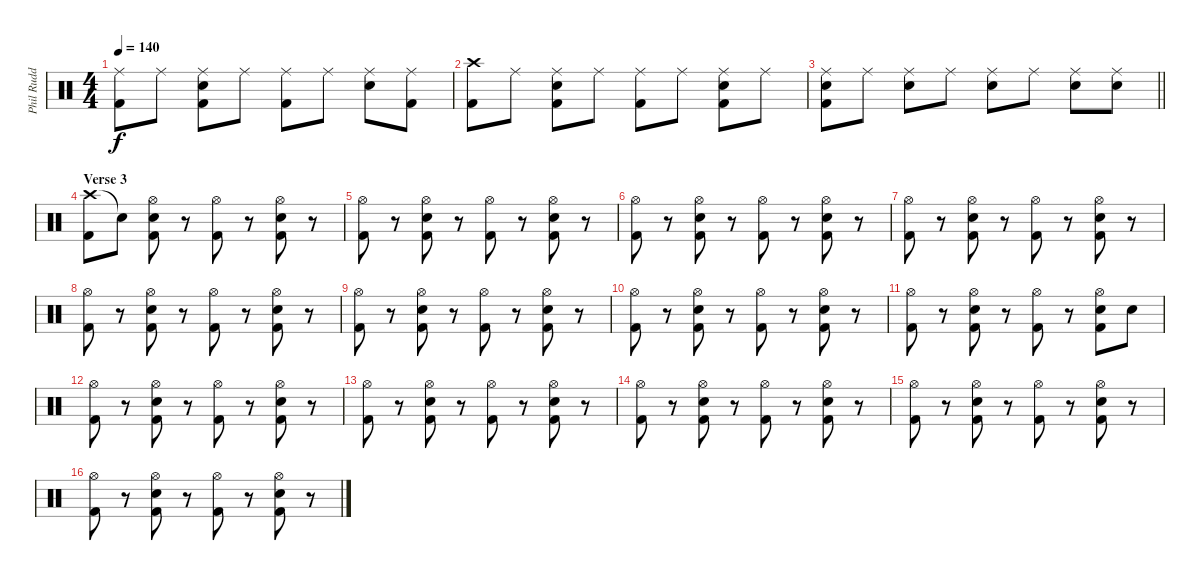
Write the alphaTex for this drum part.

\track ("Phil Rudd" "Phil Rudd") {instrument percussion}
\staff {score}
\articulation defaults
\ts (4 4)
\tempo 140
\clef neutral
\ks c
("Ride (middle)" "Kick (hit) 2").8{dy f} "Ride (middle)".8 ("Ride (middle)" "Electric Snare (hit)" "Kick (hit) 2").8 "Ride (middle)".8 ("Ride (middle)" "Kick (hit) 2").8 "Ride (middle)".8 ("Ride (middle)" "Electric Snare (hit)").8 ("Ride (middle)" "Kick (hit) 2").8 |
("Crash high (hit)" "Kick (hit) 2").8 "Ride (middle)".8 ("Ride (middle)" "Electric Snare (hit)" "Kick (hit) 2").8 "Ride (middle)".8 ("Ride (middle)" "Kick (hit) 2").8 "Ride (middle)".8 ("Ride (middle)" "Electric Snare (hit)" "Kick (hit) 2").8 "Ride (middle)".8 |
\barLineRight lightlight
("Ride (middle)" "Electric Snare (hit)" "Kick (hit) 2").8 "Ride (middle)".8 ("Ride (middle)" "Electric Snare (hit)").8 "Ride (middle)".8 ("Ride (middle)" "Electric Snare (hit)").8 "Ride (middle)".8 ("Ride (middle)" "Electric Snare (hit)").8 ("Ride (middle)" "Electric Snare (hit)").8 |
\section ("" "Verse 3")
("Crash high (hit)" "Kick (hit) 2").8 "Snare (hit)"{t}.8 ("Hi-Hat (open)" "Electric Snare (hit)" "Kick (hit) 2").8 r.8 ("Hi-Hat (open)" "Kick (hit) 2").8 r.8 ("Hi-Hat (open)" "Electric Snare (hit)" "Kick (hit) 2").8 r.8 |
("Hi-Hat (open)" "Kick (hit) 2").8 r.8 ("Hi-Hat (open)" "Electric Snare (hit)" "Kick (hit) 2").8 r.8 ("Hi-Hat (open)" "Kick (hit) 2").8 r.8 ("Hi-Hat (open)" "Electric Snare (hit)" "Kick (hit) 2").8 r.8 |
("Hi-Hat (open)" "Kick (hit) 2").8 r.8 ("Hi-Hat (open)" "Electric Snare (hit)" "Kick (hit) 2").8 r.8 ("Hi-Hat (open)" "Kick (hit) 2").8 r.8 ("Hi-Hat (open)" "Electric Snare (hit)" "Kick (hit) 2").8 r.8 |
("Hi-Hat (open)" "Kick (hit) 2").8 r.8 ("Hi-Hat (open)" "Electric Snare (hit)" "Kick (hit) 2").8 r.8 ("Hi-Hat (open)" "Kick (hit) 2").8 r.8 ("Hi-Hat (open)" "Electric Snare (hit)" "Kick (hit) 2").8 r.8 |
("Hi-Hat (open)" "Kick (hit) 2").8 r.8 ("Hi-Hat (open)" "Electric Snare (hit)" "Kick (hit) 2").8 r.8 ("Hi-Hat (open)" "Kick (hit) 2").8 r.8 ("Hi-Hat (open)" "Electric Snare (hit)" "Kick (hit) 2").8 r.8 |
("Hi-Hat (open)" "Kick (hit) 2").8 r.8 ("Hi-Hat (open)" "Electric Snare (hit)" "Kick (hit) 2").8 r.8 ("Hi-Hat (open)" "Kick (hit) 2").8 r.8 ("Hi-Hat (open)" "Electric Snare (hit)" "Kick (hit) 2").8 r.8 |
("Hi-Hat (open)" "Kick (hit) 2").8 r.8 ("Hi-Hat (open)" "Electric Snare (hit)" "Kick (hit) 2").8 r.8 ("Hi-Hat (open)" "Kick (hit) 2").8 r.8 ("Hi-Hat (open)" "Electric Snare (hit)" "Kick (hit) 2").8 r.8 |
("Hi-Hat (open)" "Kick (hit) 2").8 r.8 ("Hi-Hat (open)" "Electric Snare (hit)" "Kick (hit) 2").8 r.8 ("Hi-Hat (open)" "Kick (hit) 2").8 r.8 ("Hi-Hat (open)" "Electric Snare (hit)" "Kick (hit) 2").8 "Electric Snare (hit)".8 |
("Hi-Hat (open)" "Kick (hit) 2").8 r.8 ("Hi-Hat (open)" "Electric Snare (hit)" "Kick (hit) 2").8 r.8 ("Hi-Hat (open)" "Kick (hit) 2").8 r.8 ("Hi-Hat (open)" "Electric Snare (hit)" "Kick (hit) 2").8 r.8 |
("Hi-Hat (open)" "Kick (hit) 2").8 r.8 ("Hi-Hat (open)" "Electric Snare (hit)" "Kick (hit) 2").8 r.8 ("Hi-Hat (open)" "Kick (hit) 2").8 r.8 ("Hi-Hat (open)" "Electric Snare (hit)" "Kick (hit) 2").8 r.8 |
("Hi-Hat (open)" "Kick (hit) 2").8 r.8 ("Hi-Hat (open)" "Electric Snare (hit)" "Kick (hit) 2").8 r.8 ("Hi-Hat (open)" "Kick (hit) 2").8 r.8 ("Hi-Hat (open)" "Electric Snare (hit)" "Kick (hit) 2").8 r.8 |
("Hi-Hat (open)" "Kick (hit) 2").8 r.8 ("Hi-Hat (open)" "Electric Snare (hit)" "Kick (hit) 2").8 r.8 ("Hi-Hat (open)" "Kick (hit) 2").8 r.8 ("Hi-Hat (open)" "Electric Snare (hit)" "Kick (hit) 2").8 r.8 |
("Hi-Hat (open)" "Kick (hit) 2").8 r.8 ("Hi-Hat (open)" "Electric Snare (hit)" "Kick (hit) 2").8 r.8 ("Hi-Hat (open)" "Kick (hit) 2").8 r.8 ("Hi-Hat (open)" "Electric Snare (hit)" "Kick (hit) 2").8 r.8
